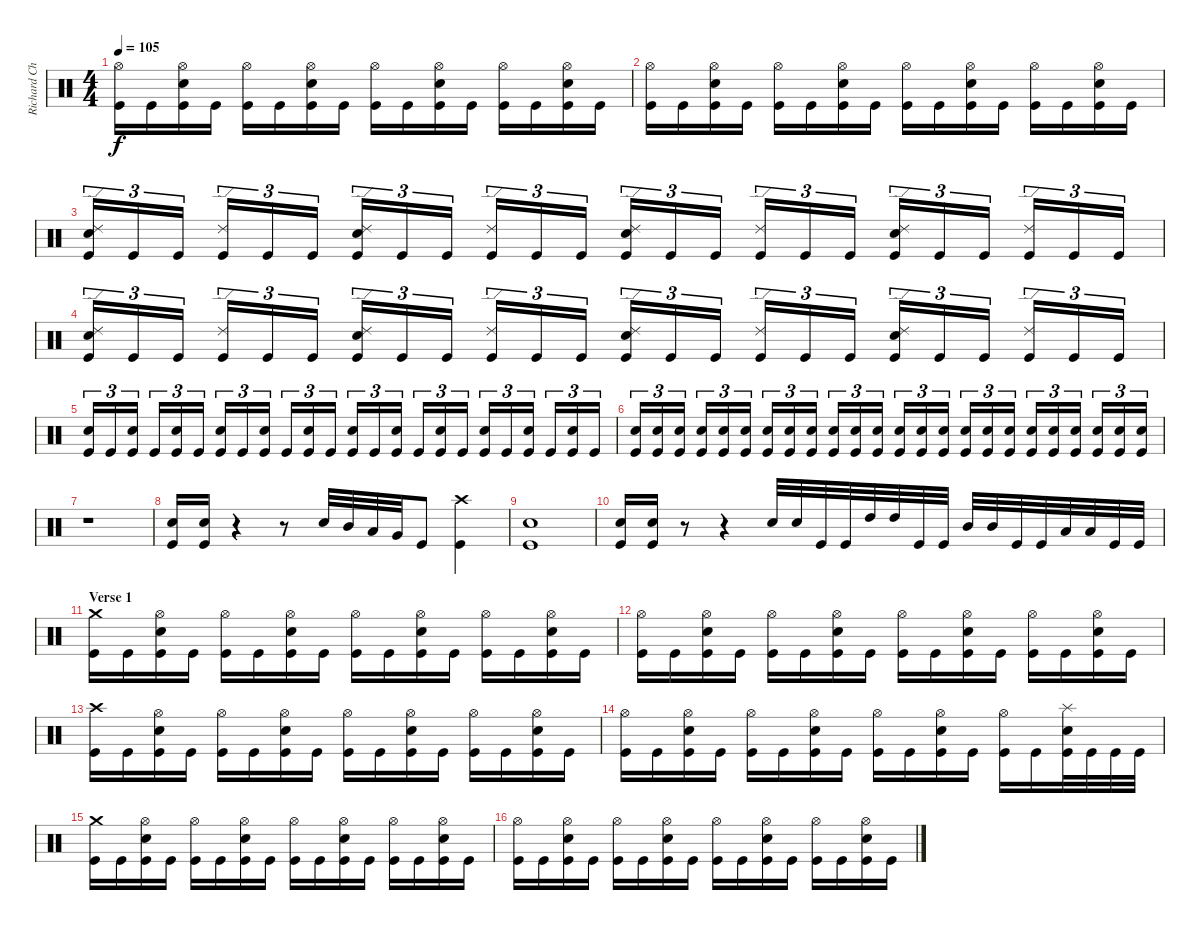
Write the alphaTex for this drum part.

\track ("Richard Christy" "Richard Ch") {instrument percussion}
\staff {score}
\articulation defaults
\ts (4 4)
\tempo 105
\clef neutral
\ks c
("Hi-Hat (open)" "Kick (hit)").16{dy f} "Kick (hit)".16 ("Hi-Hat (open)" "Electric Snare (hit)" "Kick (hit)").16 "Kick (hit)".16 ("Hi-Hat (open)" "Kick (hit)").16 "Kick (hit)".16 ("Hi-Hat (open)" "Electric Snare (hit)" "Kick (hit)").16 "Kick (hit)".16 ("Hi-Hat (open)" "Kick (hit)").16 "Kick (hit)".16 ("Hi-Hat (open)" "Electric Snare (hit)" "Kick (hit)").16 "Kick (hit)".16 ("Hi-Hat (open)" "Kick (hit)").16 "Kick (hit)".16 ("Hi-Hat (open)" "Electric Snare (hit)" "Kick (hit)").16 "Kick (hit)".16 |
("Hi-Hat (open)" "Kick (hit)").16 "Kick (hit)".16 ("Hi-Hat (open)" "Electric Snare (hit)" "Kick (hit)").16 "Kick (hit)".16 ("Hi-Hat (open)" "Kick (hit)").16 "Kick (hit)".16 ("Hi-Hat (open)" "Electric Snare (hit)" "Kick (hit)").16 "Kick (hit)".16 ("Hi-Hat (open)" "Kick (hit)").16 "Kick (hit)".16 ("Hi-Hat (open)" "Electric Snare (hit)" "Kick (hit)").16 "Kick (hit)".16 ("Hi-Hat (open)" "Kick (hit)").16 "Kick (hit)".16 ("Hi-Hat (open)" "Electric Snare (hit)" "Kick (hit)").16 "Kick (hit)".16 |
("Ride (edge) 2" "Electric Snare (hit)" "Kick (hit)").16{tu (3 2)} "Kick (hit)".16{tu (3 2)} "Kick (hit)".16{tu (3 2)} ("Ride (edge) 2" "Kick (hit)").16{tu (3 2)} "Kick (hit)".16{tu (3 2)} "Kick (hit)".16{tu (3 2)} ("Ride (edge) 2" "Electric Snare (hit)" "Kick (hit)").16{tu (3 2)} "Kick (hit)".16{tu (3 2)} "Kick (hit)".16{tu (3 2)} ("Ride (edge) 2" "Kick (hit)").16{tu (3 2)} "Kick (hit)".16{tu (3 2)} "Kick (hit)".16{tu (3 2)} ("Ride (edge) 2" "Electric Snare (hit)" "Kick (hit)").16{tu (3 2)} "Kick (hit)".16{tu (3 2)} "Kick (hit)".16{tu (3 2)} ("Ride (edge) 2" "Kick (hit)").16{tu (3 2)} "Kick (hit)".16{tu (3 2)} "Kick (hit)".16{tu (3 2)} ("Ride (edge) 2" "Electric Snare (hit)" "Kick (hit)").16{tu (3 2)} "Kick (hit)".16{tu (3 2)} "Kick (hit)".16{tu (3 2)} ("Ride (edge) 2" "Kick (hit)").16{tu (3 2)} "Kick (hit)".16{tu (3 2)} "Kick (hit)".16{tu (3 2)} |
("Ride (edge) 2" "Electric Snare (hit)" "Kick (hit)").16{tu (3 2)} "Kick (hit)".16{tu (3 2)} "Kick (hit)".16{tu (3 2)} ("Ride (edge) 2" "Kick (hit)").16{tu (3 2)} "Kick (hit)".16{tu (3 2)} "Kick (hit)".16{tu (3 2)} ("Ride (edge) 2" "Electric Snare (hit)" "Kick (hit)").16{tu (3 2)} "Kick (hit)".16{tu (3 2)} "Kick (hit)".16{tu (3 2)} ("Ride (edge) 2" "Kick (hit)").16{tu (3 2)} "Kick (hit)".16{tu (3 2)} "Kick (hit)".16{tu (3 2)} ("Ride (edge) 2" "Electric Snare (hit)" "Kick (hit)").16{tu (3 2)} "Kick (hit)".16{tu (3 2)} "Kick (hit)".16{tu (3 2)} ("Ride (edge) 2" "Kick (hit)").16{tu (3 2)} "Kick (hit)".16{tu (3 2)} "Kick (hit)".16{tu (3 2)} ("Ride (edge) 2" "Electric Snare (hit)" "Kick (hit)").16{tu (3 2)} "Kick (hit)".16{tu (3 2)} "Kick (hit)".16{tu (3 2)} ("Ride (edge) 2" "Kick (hit)").16{tu (3 2)} "Kick (hit)".16{tu (3 2)} "Kick (hit)".16{tu (3 2)} |
("Electric Snare (hit)" "Kick (hit)").16{tu (3 2)} "Kick (hit)".16{tu (3 2)} ("Electric Snare (hit)" "Kick (hit)").16{tu (3 2)} "Kick (hit)".16{tu (3 2)} ("Electric Snare (hit)" "Kick (hit)").16{tu (3 2)} "Kick (hit)".16{tu (3 2)} ("Electric Snare (hit)" "Kick (hit)").16{tu (3 2)} "Kick (hit)".16{tu (3 2)} ("Electric Snare (hit)" "Kick (hit)").16{tu (3 2)} "Kick (hit)".16{tu (3 2)} ("Electric Snare (hit)" "Kick (hit)").16{tu (3 2)} "Kick (hit)".16{tu (3 2)} ("Electric Snare (hit)" "Kick (hit)").16{tu (3 2)} "Kick (hit)".16{tu (3 2)} ("Electric Snare (hit)" "Kick (hit)").16{tu (3 2)} "Kick (hit)".16{tu (3 2)} ("Electric Snare (hit)" "Kick (hit)").16{tu (3 2)} "Kick (hit)".16{tu (3 2)} ("Electric Snare (hit)" "Kick (hit)").16{tu (3 2)} "Kick (hit)".16{tu (3 2)} ("Electric Snare (hit)" "Kick (hit)").16{tu (3 2)} "Kick (hit)".16{tu (3 2)} ("Electric Snare (hit)" "Kick (hit)").16{tu (3 2)} "Kick (hit)".16{tu (3 2)} |
("Electric Snare (hit)" "Kick (hit)").16{tu (3 2)} ("Electric Snare (hit)" "Kick (hit)").16{tu (3 2)} ("Electric Snare (hit)" "Kick (hit)").16{tu (3 2)} ("Electric Snare (hit)" "Kick (hit)").16{tu (3 2)} ("Electric Snare (hit)" "Kick (hit)").16{tu (3 2)} ("Electric Snare (hit)" "Kick (hit)").16{tu (3 2)} ("Electric Snare (hit)" "Kick (hit)").16{tu (3 2)} ("Electric Snare (hit)" "Kick (hit)").16{tu (3 2)} ("Electric Snare (hit)" "Kick (hit)").16{tu (3 2)} ("Electric Snare (hit)" "Kick (hit)").16{tu (3 2)} ("Electric Snare (hit)" "Kick (hit)").16{tu (3 2)} ("Electric Snare (hit)" "Kick (hit)").16{tu (3 2)} ("Electric Snare (hit)" "Kick (hit)").16{tu (3 2)} ("Electric Snare (hit)" "Kick (hit)").16{tu (3 2)} ("Electric Snare (hit)" "Kick (hit)").16{tu (3 2)} ("Electric Snare (hit)" "Kick (hit)").16{tu (3 2)} ("Electric Snare (hit)" "Kick (hit)").16{tu (3 2)} ("Electric Snare (hit)" "Kick (hit)").16{tu (3 2)} ("Electric Snare (hit)" "Kick (hit)").16{tu (3 2)} ("Electric Snare (hit)" "Kick (hit)").16{tu (3 2)} ("Electric Snare (hit)" "Kick (hit)").16{tu (3 2)} ("Electric Snare (hit)" "Kick (hit)").16{tu (3 2)} ("Electric Snare (hit)" "Kick (hit)").16{tu (3 2)} ("Electric Snare (hit)" "Kick (hit)").16{tu (3 2)} |
r.1 |
("Electric Snare (hit)" "Kick (hit)").16 ("Electric Snare (hit)" "Kick (hit)").16 r.4 r.8 "Electric Snare (hit)".32 "Mid Tom (hit)".32 "Low Tom (hit)".32 "Very Low Tom (hit)".32 "Kick (hit)".8 ("Crash high (hit)" "Kick (hit)").4 |
("Electric Snare (hit)" "Kick (hit)").1 |
("Electric Snare (hit)" "Kick (hit)").16 ("Electric Snare (hit)" "Kick (hit)").16 r.8 r.4 "Electric Snare (hit)".32 "Electric Snare (hit)".32 "Kick (hit)".32 "Kick (hit)".32 "High Tom (hit)".32 "High Tom (hit)".32 "Kick (hit)".32 "Kick (hit)".32 "Mid Tom (hit)".32 "Mid Tom (hit)".32 "Kick (hit)".32 "Kick (hit)".32 "Low Tom (hit)".32 "Low Tom (hit)".32 "Kick (hit)".32 "Kick (hit)".32 |
\section ("" "Verse 1")
("Crash medium (hit)" "Kick (hit)").16 "Kick (hit)".16 ("Hi-Hat (open)" "Electric Snare (hit)" "Kick (hit)").16 "Kick (hit)".16 ("Hi-Hat (open)" "Kick (hit)").16 "Kick (hit)".16 ("Hi-Hat (open)" "Electric Snare (hit)" "Kick (hit)").16 "Kick (hit)".16 ("Hi-Hat (open)" "Kick (hit)").16 "Kick (hit)".16 ("Hi-Hat (open)" "Electric Snare (hit)" "Kick (hit)").16 "Kick (hit)".16 ("Hi-Hat (open)" "Kick (hit)").16 "Kick (hit)".16 ("Hi-Hat (open)" "Electric Snare (hit)" "Kick (hit)").16 "Kick (hit)".16 |
("Hi-Hat (open)" "Kick (hit)").16 "Kick (hit)".16 ("Hi-Hat (open)" "Electric Snare (hit)" "Kick (hit)").16 "Kick (hit)".16 ("Hi-Hat (open)" "Kick (hit)").16 "Kick (hit)".16 ("Hi-Hat (open)" "Electric Snare (hit)" "Kick (hit)").16 "Kick (hit)".16 ("Hi-Hat (open)" "Kick (hit)").16 "Kick (hit)".16 ("Hi-Hat (open)" "Electric Snare (hit)" "Kick (hit)").16 "Kick (hit)".16 ("Hi-Hat (open)" "Kick (hit)").16 "Kick (hit)".16 ("Hi-Hat (open)" "Electric Snare (hit)" "Kick (hit)").16 "Kick (hit)".16 |
("Crash high (hit)" "Kick (hit)").16 "Kick (hit)".16 ("Hi-Hat (open)" "Electric Snare (hit)" "Kick (hit)").16 "Kick (hit)".16 ("Hi-Hat (open)" "Kick (hit)").16 "Kick (hit)".16 ("Hi-Hat (open)" "Electric Snare (hit)" "Kick (hit)").16 "Kick (hit)".16 ("Hi-Hat (open)" "Kick (hit)").16 "Kick (hit)".16 ("Hi-Hat (open)" "Electric Snare (hit)" "Kick (hit)").16 "Kick (hit)".16 ("Hi-Hat (open)" "Kick (hit)").16 "Kick (hit)".16 ("Hi-Hat (open)" "Electric Snare (hit)" "Kick (hit)").16 "Kick (hit)".16 |
("Hi-Hat (open)" "Kick (hit)").16 "Kick (hit)".16 ("Hi-Hat (open)" "Electric Snare (hit)" "Kick (hit)").16 "Kick (hit)".16 ("Hi-Hat (open)" "Kick (hit)").16 "Kick (hit)".16 ("Hi-Hat (open)" "Electric Snare (hit)" "Kick (hit)").16 "Kick (hit)".16 ("Hi-Hat (open)" "Kick (hit)").16 "Kick (hit)".16 ("Hi-Hat (open)" "Electric Snare (hit)" "Kick (hit)").16 "Kick (hit)".16 ("Hi-Hat (open)" "Kick (hit)").16 "Kick (hit)".16 ("Splash (hit)" "Electric Snare (hit)" "Kick (hit)").32 "Kick (hit)".32 "Kick (hit)".32 "Kick (hit)".32 |
("Crash medium (hit)" "Kick (hit)").16 "Kick (hit)".16 ("Hi-Hat (open)" "Electric Snare (hit)" "Kick (hit)").16 "Kick (hit)".16 ("Hi-Hat (open)" "Kick (hit)").16 "Kick (hit)".16 ("Hi-Hat (open)" "Electric Snare (hit)" "Kick (hit)").16 "Kick (hit)".16 ("Hi-Hat (open)" "Kick (hit)").16 "Kick (hit)".16 ("Hi-Hat (open)" "Electric Snare (hit)" "Kick (hit)").16 "Kick (hit)".16 ("Hi-Hat (open)" "Kick (hit)").16 "Kick (hit)".16 ("Hi-Hat (open)" "Electric Snare (hit)" "Kick (hit)").16 "Kick (hit)".16 |
("Hi-Hat (open)" "Kick (hit)").16 "Kick (hit)".16 ("Hi-Hat (open)" "Electric Snare (hit)" "Kick (hit)").16 "Kick (hit)".16 ("Hi-Hat (open)" "Kick (hit)").16 "Kick (hit)".16 ("Hi-Hat (open)" "Electric Snare (hit)" "Kick (hit)").16 "Kick (hit)".16 ("Hi-Hat (open)" "Kick (hit)").16 "Kick (hit)".16 ("Hi-Hat (open)" "Electric Snare (hit)" "Kick (hit)").16 "Kick (hit)".16 ("Hi-Hat (open)" "Kick (hit)").16 "Kick (hit)".16 ("Hi-Hat (open)" "Electric Snare (hit)" "Kick (hit)").16 "Kick (hit)".16
